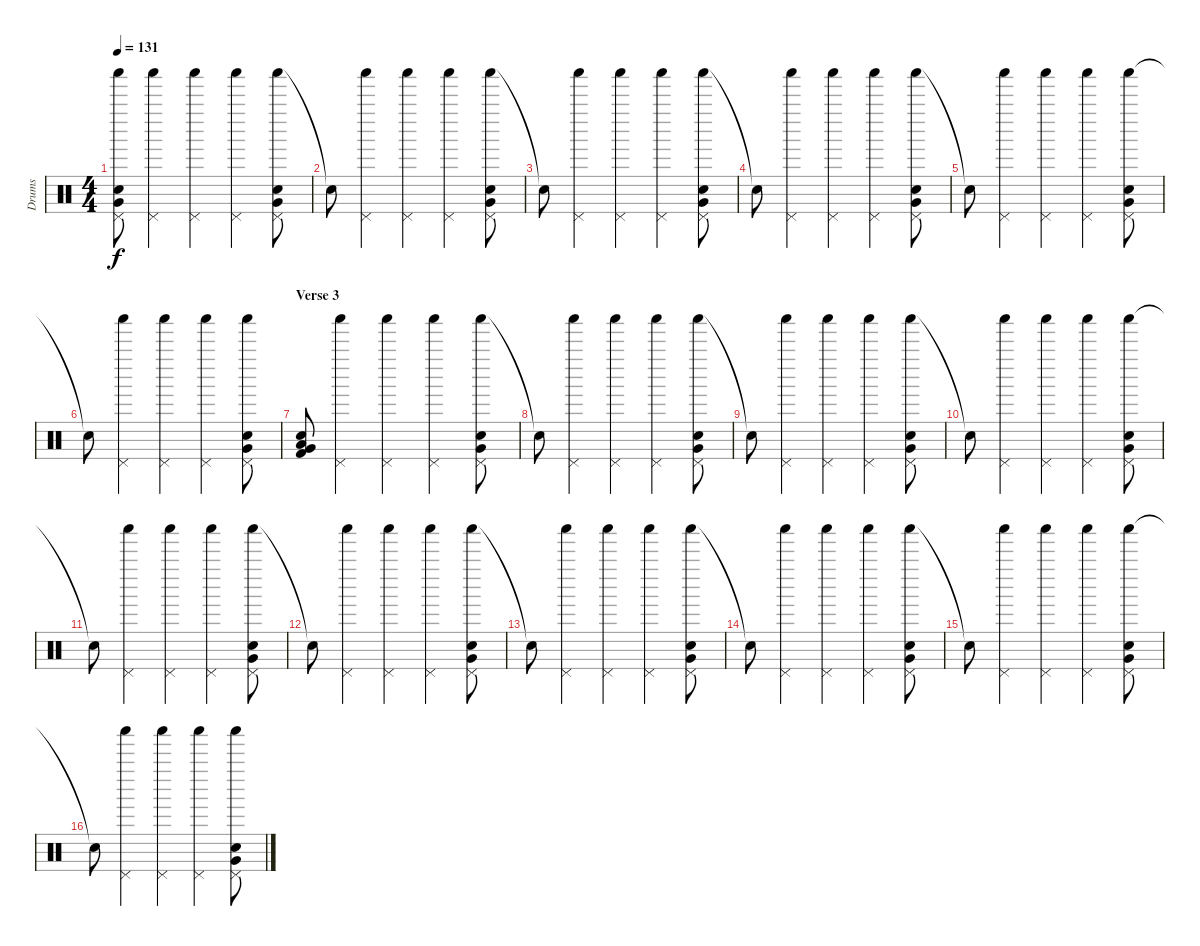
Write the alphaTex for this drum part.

\track ("Drums" "Drums") {instrument percussion}
\staff {score}
\articulation defaults
\ts (4 4)
\tempo 131
\clef neutral
\ks c
("Shaker (hit)" "Pedal Hi-Hat (hit)" "Snare (hit) 2" "Very Low Tom (hit)").8{dy f} ("Shaker (hit)" "Pedal Hi-Hat (hit)").4 ("Shaker (hit)" "Pedal Hi-Hat (hit)").4 ("Shaker (hit)" "Pedal Hi-Hat (hit)").4 ("Shaker (hit)" "Pedal Hi-Hat (hit)" "Snare (hit) 2" "Very Low Tom (hit)").8 |
"Snare (hit) 2"{t}.8 ("Shaker (hit)" "Pedal Hi-Hat (hit)").4 ("Shaker (hit)" "Pedal Hi-Hat (hit)").4 ("Shaker (hit)" "Pedal Hi-Hat (hit)").4 ("Shaker (hit)" "Pedal Hi-Hat (hit)" "Snare (hit) 2" "Very Low Tom (hit)").8 |
"Snare (hit) 2"{t}.8 ("Shaker (hit)" "Pedal Hi-Hat (hit)").4 ("Shaker (hit)" "Pedal Hi-Hat (hit)").4 ("Shaker (hit)" "Pedal Hi-Hat (hit)").4 ("Shaker (hit)" "Pedal Hi-Hat (hit)" "Snare (hit) 2" "Very Low Tom (hit)").8 |
"Snare (hit) 2"{t}.8 ("Shaker (hit)" "Pedal Hi-Hat (hit)").4 ("Shaker (hit)" "Pedal Hi-Hat (hit)").4 ("Shaker (hit)" "Pedal Hi-Hat (hit)").4 ("Shaker (hit)" "Pedal Hi-Hat (hit)" "Snare (hit) 2" "Very Low Tom (hit)").8 |
"Snare (hit) 2"{t}.8 ("Shaker (hit)" "Pedal Hi-Hat (hit)").4 ("Shaker (hit)" "Pedal Hi-Hat (hit)").4 ("Shaker (hit)" "Pedal Hi-Hat (hit)").4 ("Shaker (hit)" "Pedal Hi-Hat (hit)" "Snare (hit) 2" "Very Low Tom (hit)").8 |
"Snare (hit) 2"{t}.8 ("Shaker (hit)" "Pedal Hi-Hat (hit)").4 ("Shaker (hit)" "Pedal Hi-Hat (hit)").4 ("Shaker (hit)" "Pedal Hi-Hat (hit)").4 ("Shaker (hit)" "Pedal Hi-Hat (hit)" "Snare (hit) 2" "Very Low Tom (hit)").8 |
\section ("" "Verse 3")
("Low Tom (hit)" "Kick (hit) 2" "Very Low Tom (hit)" "Snare (hit) 2").8 ("Shaker (hit)" "Pedal Hi-Hat (hit)").4 ("Shaker (hit)" "Pedal Hi-Hat (hit)").4 ("Shaker (hit)" "Pedal Hi-Hat (hit)").4 ("Shaker (hit)" "Pedal Hi-Hat (hit)" "Snare (hit) 2" "Very Low Tom (hit)").8 |
"Snare (hit) 2"{t}.8 ("Shaker (hit)" "Pedal Hi-Hat (hit)").4 ("Shaker (hit)" "Pedal Hi-Hat (hit)").4 ("Shaker (hit)" "Pedal Hi-Hat (hit)").4 ("Shaker (hit)" "Pedal Hi-Hat (hit)" "Snare (hit) 2" "Very Low Tom (hit)").8 |
"Snare (hit) 2"{t}.8 ("Shaker (hit)" "Pedal Hi-Hat (hit)").4 ("Shaker (hit)" "Pedal Hi-Hat (hit)").4 ("Shaker (hit)" "Pedal Hi-Hat (hit)").4 ("Shaker (hit)" "Pedal Hi-Hat (hit)" "Snare (hit) 2" "Very Low Tom (hit)").8 |
"Snare (hit) 2"{t}.8 ("Shaker (hit)" "Pedal Hi-Hat (hit)").4 ("Shaker (hit)" "Pedal Hi-Hat (hit)").4 ("Shaker (hit)" "Pedal Hi-Hat (hit)").4 ("Shaker (hit)" "Pedal Hi-Hat (hit)" "Snare (hit) 2" "Very Low Tom (hit)").8 |
"Snare (hit) 2"{t}.8 ("Shaker (hit)" "Pedal Hi-Hat (hit)").4 ("Shaker (hit)" "Pedal Hi-Hat (hit)").4 ("Shaker (hit)" "Pedal Hi-Hat (hit)").4 ("Shaker (hit)" "Pedal Hi-Hat (hit)" "Snare (hit) 2" "Very Low Tom (hit)").8 |
"Snare (hit) 2"{t}.8 ("Shaker (hit)" "Pedal Hi-Hat (hit)").4 ("Shaker (hit)" "Pedal Hi-Hat (hit)").4 ("Shaker (hit)" "Pedal Hi-Hat (hit)").4 ("Shaker (hit)" "Pedal Hi-Hat (hit)" "Snare (hit) 2" "Very Low Tom (hit)").8 |
"Snare (hit) 2"{t}.8 ("Shaker (hit)" "Pedal Hi-Hat (hit)").4 ("Shaker (hit)" "Pedal Hi-Hat (hit)").4 ("Shaker (hit)" "Pedal Hi-Hat (hit)").4 ("Shaker (hit)" "Pedal Hi-Hat (hit)" "Snare (hit) 2" "Very Low Tom (hit)").8 |
"Snare (hit) 2"{t}.8 ("Shaker (hit)" "Pedal Hi-Hat (hit)").4 ("Shaker (hit)" "Pedal Hi-Hat (hit)").4 ("Shaker (hit)" "Pedal Hi-Hat (hit)").4 ("Shaker (hit)" "Pedal Hi-Hat (hit)" "Snare (hit) 2" "Very Low Tom (hit)").8 |
"Snare (hit) 2"{t}.8 ("Shaker (hit)" "Pedal Hi-Hat (hit)").4 ("Shaker (hit)" "Pedal Hi-Hat (hit)").4 ("Shaker (hit)" "Pedal Hi-Hat (hit)").4 ("Shaker (hit)" "Pedal Hi-Hat (hit)" "Snare (hit) 2" "Very Low Tom (hit)").8 |
"Snare (hit) 2"{t}.8 ("Shaker (hit)" "Pedal Hi-Hat (hit)").4 ("Shaker (hit)" "Pedal Hi-Hat (hit)").4 ("Shaker (hit)" "Pedal Hi-Hat (hit)").4 ("Shaker (hit)" "Pedal Hi-Hat (hit)" "Snare (hit) 2" "Very Low Tom (hit)").8
